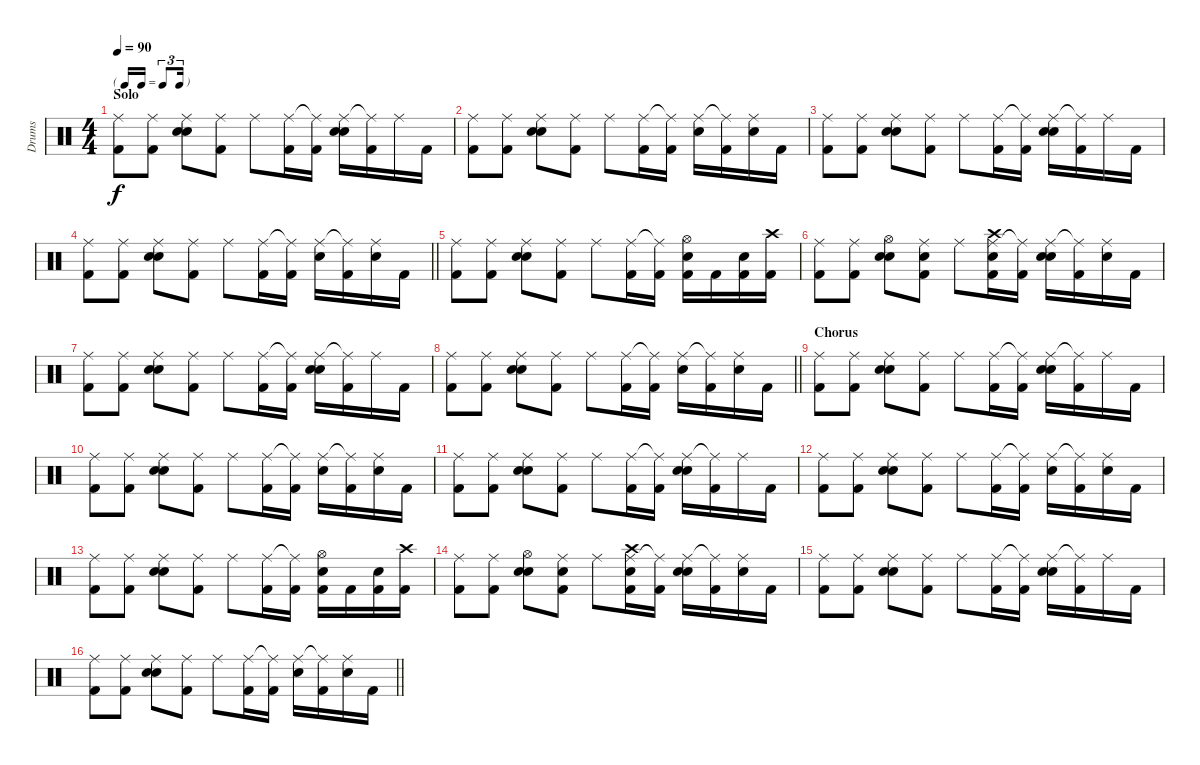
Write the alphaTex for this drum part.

\track ("Drums" "Drums") {instrument percussion}
\staff {score}
\articulation defaults
\ts (4 4)
\tf triplet16th
\section ("" "Solo")
\tempo 90
\clef neutral
\ks c
("Ride (middle)" "Kick (hit) 2").8{dy f} ("Ride (middle)" "Kick (hit) 2").8 ("Ride (middle)" "Hand Clap (hit)" "Snare (hit) 2").8 ("Ride (middle)" "Kick (hit) 2").8 "Ride (middle)".8 ("Ride (middle)" "Kick (hit) 2").16 ("Ride (middle)"{t} "Kick (hit) 2").16 ("Ride (middle)" "Hand Clap (hit)" "Snare (hit) 2").16 ("Ride (middle)"{t} "Kick (hit) 2").16 "Ride (middle)".16 "Kick (hit) 2".16 |
("Ride (middle)" "Kick (hit) 2").8 ("Ride (middle)" "Kick (hit) 2").8 ("Ride (middle)" "Hand Clap (hit)" "Snare (hit) 2").8 ("Ride (middle)" "Kick (hit) 2").8 "Ride (middle)".8 ("Ride (middle)" "Kick (hit) 2").16 ("Ride (middle)"{t} "Kick (hit) 2").16 ("Ride (middle)" "Hand Clap (hit)").16 ("Ride (middle)"{t} "Kick (hit) 2").16 ("Ride (middle)" "Snare (hit) 2").16 "Kick (hit) 2".16 |
("Ride (middle)" "Kick (hit) 2").8 ("Ride (middle)" "Kick (hit) 2").8 ("Ride (middle)" "Hand Clap (hit)" "Snare (hit) 2").8 ("Ride (middle)" "Kick (hit) 2").8 "Ride (middle)".8 ("Ride (middle)" "Kick (hit) 2").16 ("Ride (middle)"{t} "Kick (hit) 2").16 ("Ride (middle)" "Hand Clap (hit)" "Snare (hit) 2").16 ("Ride (middle)"{t} "Kick (hit) 2").16 "Ride (middle)".16 "Kick (hit) 2".16 |
\barLineRight lightlight
("Ride (middle)" "Kick (hit) 2").8 ("Ride (middle)" "Kick (hit) 2").8 ("Ride (middle)" "Hand Clap (hit)" "Snare (hit) 2").8 ("Ride (middle)" "Kick (hit) 2").8 "Ride (middle)".8 ("Ride (middle)" "Kick (hit) 2").16 ("Ride (middle)"{t} "Kick (hit) 2").16 ("Ride (middle)" "Hand Clap (hit)").16 ("Ride (middle)"{t} "Kick (hit) 2").16 ("Ride (middle)" "Snare (hit) 2").16 "Kick (hit) 2".16 |
("Ride (middle)" "Kick (hit) 2").8 ("Ride (middle)" "Kick (hit) 2").8 ("Ride (middle)" "Hand Clap (hit)" "Snare (hit) 2").8 ("Ride (middle)" "Kick (hit) 2").8 "Ride (middle)".8 ("Ride (middle)" "Kick (hit) 2").16 ("Ride (middle)"{t} "Kick (hit) 2").16 ("Hi-Hat (open)" "Snare (hit) 2" "Kick (hit) 2").16 "Kick (hit) 2".16 ("Snare (hit) 2" "Kick (hit) 2").16 ("Crash high (hit)" "Kick (hit) 2").16 |
("Ride (middle)" "Kick (hit) 2").8 ("Ride (middle)" "Kick (hit) 2").8 ("Hi-Hat (open)" "Hand Clap (hit)" "Snare (hit) 2").8 ("Ride (middle)" "Snare (hit) 2" "Kick (hit) 2").8 "Ride (middle)".8 ("Ride (middle)" "Crash high (hit)" "Snare (hit) 2" "Kick (hit) 2").16 ("Ride (middle)"{t} "Kick (hit) 2").16 ("Ride (middle)" "Hand Clap (hit)" "Snare (hit) 2").16 ("Ride (middle)"{t} "Kick (hit) 2").16 ("Ride (middle)" "Snare (hit) 2").16 "Kick (hit) 2".16 |
("Ride (middle)" "Kick (hit) 2").8 ("Ride (middle)" "Kick (hit) 2").8 ("Ride (middle)" "Hand Clap (hit)" "Snare (hit) 2").8 ("Ride (middle)" "Kick (hit) 2").8 "Ride (middle)".8 ("Ride (middle)" "Kick (hit) 2").16 ("Ride (middle)"{t} "Kick (hit) 2").16 ("Ride (middle)" "Hand Clap (hit)" "Snare (hit) 2").16 ("Ride (middle)"{t} "Kick (hit) 2").16 "Ride (middle)".16 "Kick (hit) 2".16 |
\barLineRight lightlight
("Ride (middle)" "Kick (hit) 2").8 ("Ride (middle)" "Kick (hit) 2").8 ("Ride (middle)" "Hand Clap (hit)" "Snare (hit) 2").8 ("Ride (middle)" "Kick (hit) 2").8 "Ride (middle)".8 ("Ride (middle)" "Kick (hit) 2").16 ("Ride (middle)"{t} "Kick (hit) 2").16 ("Ride (middle)" "Hand Clap (hit)").16 ("Ride (middle)"{t} "Kick (hit) 2").16 ("Ride (middle)" "Snare (hit) 2").16 "Kick (hit) 2".16 |
\section ("" "Chorus")
("Ride (middle)" "Kick (hit) 2").8 ("Ride (middle)" "Kick (hit) 2").8 ("Ride (middle)" "Hand Clap (hit)" "Snare (hit) 2").8 ("Ride (middle)" "Kick (hit) 2").8 "Ride (middle)".8 ("Ride (middle)" "Kick (hit) 2").16 ("Ride (middle)"{t} "Kick (hit) 2").16 ("Ride (middle)" "Hand Clap (hit)" "Snare (hit) 2").16 ("Ride (middle)"{t} "Kick (hit) 2").16 "Ride (middle)".16 "Kick (hit) 2".16 |
("Ride (middle)" "Kick (hit) 2").8 ("Ride (middle)" "Kick (hit) 2").8 ("Ride (middle)" "Hand Clap (hit)" "Snare (hit) 2").8 ("Ride (middle)" "Kick (hit) 2").8 "Ride (middle)".8 ("Ride (middle)" "Kick (hit) 2").16 ("Ride (middle)"{t} "Kick (hit) 2").16 ("Ride (middle)" "Hand Clap (hit)").16 ("Ride (middle)"{t} "Kick (hit) 2").16 ("Ride (middle)" "Snare (hit) 2").16 "Kick (hit) 2".16 |
("Ride (middle)" "Kick (hit) 2").8 ("Ride (middle)" "Kick (hit) 2").8 ("Ride (middle)" "Hand Clap (hit)" "Snare (hit) 2").8 ("Ride (middle)" "Kick (hit) 2").8 "Ride (middle)".8 ("Ride (middle)" "Kick (hit) 2").16 ("Ride (middle)"{t} "Kick (hit) 2").16 ("Ride (middle)" "Hand Clap (hit)" "Snare (hit) 2").16 ("Ride (middle)"{t} "Kick (hit) 2").16 "Ride (middle)".16 "Kick (hit) 2".16 |
("Ride (middle)" "Kick (hit) 2").8 ("Ride (middle)" "Kick (hit) 2").8 ("Ride (middle)" "Hand Clap (hit)" "Snare (hit) 2").8 ("Ride (middle)" "Kick (hit) 2").8 "Ride (middle)".8 ("Ride (middle)" "Kick (hit) 2").16 ("Ride (middle)"{t} "Kick (hit) 2").16 ("Ride (middle)" "Hand Clap (hit)").16 ("Ride (middle)"{t} "Kick (hit) 2").16 ("Ride (middle)" "Snare (hit) 2").16 "Kick (hit) 2".16 |
("Ride (middle)" "Kick (hit) 2").8 ("Ride (middle)" "Kick (hit) 2").8 ("Ride (middle)" "Hand Clap (hit)" "Snare (hit) 2").8 ("Ride (middle)" "Kick (hit) 2").8 "Ride (middle)".8 ("Ride (middle)" "Kick (hit) 2").16 ("Ride (middle)"{t} "Kick (hit) 2").16 ("Hi-Hat (open)" "Snare (hit) 2" "Kick (hit) 2").16 "Kick (hit) 2".16 ("Snare (hit) 2" "Kick (hit) 2").16 ("Crash high (hit)" "Kick (hit) 2").16 |
("Ride (middle)" "Kick (hit) 2").8 ("Ride (middle)" "Kick (hit) 2").8 ("Hi-Hat (open)" "Hand Clap (hit)" "Snare (hit) 2").8 ("Ride (middle)" "Snare (hit) 2" "Kick (hit) 2").8 "Ride (middle)".8 ("Ride (middle)" "Crash high (hit)" "Snare (hit) 2" "Kick (hit) 2").16 ("Ride (middle)"{t} "Kick (hit) 2").16 ("Ride (middle)" "Hand Clap (hit)" "Snare (hit) 2").16 ("Ride (middle)"{t} "Kick (hit) 2").16 ("Ride (middle)" "Snare (hit) 2").16 "Kick (hit) 2".16 |
("Ride (middle)" "Kick (hit) 2").8 ("Ride (middle)" "Kick (hit) 2").8 ("Ride (middle)" "Hand Clap (hit)" "Snare (hit) 2").8 ("Ride (middle)" "Kick (hit) 2").8 "Ride (middle)".8 ("Ride (middle)" "Kick (hit) 2").16 ("Ride (middle)"{t} "Kick (hit) 2").16 ("Ride (middle)" "Hand Clap (hit)" "Snare (hit) 2").16 ("Ride (middle)"{t} "Kick (hit) 2").16 "Ride (middle)".16 "Kick (hit) 2".16 |
\barLineRight lightlight
("Ride (middle)" "Kick (hit) 2").8 ("Ride (middle)" "Kick (hit) 2").8 ("Ride (middle)" "Hand Clap (hit)" "Snare (hit) 2").8 ("Ride (middle)" "Kick (hit) 2").8 "Ride (middle)".8 ("Ride (middle)" "Kick (hit) 2").16 ("Ride (middle)"{t} "Kick (hit) 2").16 ("Ride (middle)" "Hand Clap (hit)").16 ("Ride (middle)"{t} "Kick (hit) 2").16 ("Ride (middle)" "Snare (hit) 2").16 "Kick (hit) 2".16
